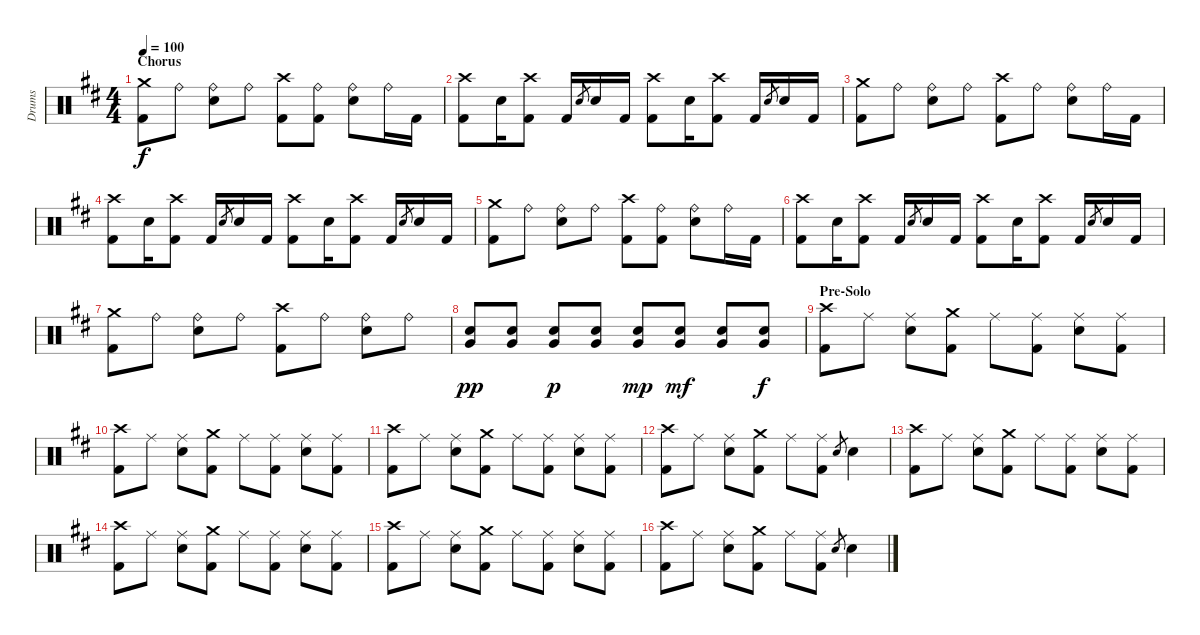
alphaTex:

\track ("Drums" "Drums") {instrument percussion}
\staff {score}
\articulation defaults
\ts (4 4)
\section ("" "Chorus ")
\tempo 100
\clef neutral
\ks bminor
("Crash medium (hit)" "Kick (hit) 2").8{dy f} "Ride (bell)".8 ("Ride (bell)" "Snare (hit) 2").8 "Ride (bell)".8 ("Crash high (hit)" "Kick (hit) 2").8 ("Ride (bell)" "Kick (hit) 2").8 ("Ride (bell)" "Snare (hit) 2").8 "Ride (bell)".16 "Kick (hit) 2".16 |
("Crash high (hit)" "Kick (hit) 2").8 "Snare (hit) 2".16 ("Crash high (hit)" "Kick (hit) 2").8 "Kick (hit) 2".16 "Snare (hit) 2".8{gr} "Snare (hit) 2".16 "Kick (hit) 2".16 ("Crash high (hit)" "Kick (hit) 2").8 "Snare (hit) 2".16 ("Crash high (hit)" "Kick (hit) 2").8 "Kick (hit) 2".16 "Snare (hit) 2".8{gr} "Snare (hit) 2".16 "Kick (hit) 2".16 |
("Crash medium (hit)" "Kick (hit) 2").8 "Ride (bell)".8 ("Ride (bell)" "Snare (hit) 2").8 "Ride (bell)".8 ("Crash high (hit)" "Kick (hit) 2").8 "Ride (bell)".8 ("Ride (bell)" "Snare (hit) 2").8 "Ride (bell)".16 "Kick (hit) 2".16 |
("Crash high (hit)" "Kick (hit) 2").8 "Snare (hit) 2".16 ("Crash high (hit)" "Kick (hit) 2").8 "Kick (hit) 2".16 "Snare (hit) 2".8{gr} "Snare (hit) 2".16 "Kick (hit) 2".16 ("Crash high (hit)" "Kick (hit) 2").8 "Snare (hit) 2".16 ("Crash high (hit)" "Kick (hit) 2").8 "Kick (hit) 2".16 "Snare (hit) 2".8{gr} "Snare (hit) 2".16 "Kick (hit) 2".16 |
("Crash medium (hit)" "Kick (hit) 2").8 "Ride (bell)".8 ("Ride (bell)" "Snare (hit) 2").8 "Ride (bell)".8 ("Crash high (hit)" "Kick (hit) 2").8 ("Ride (bell)" "Kick (hit) 2").8 ("Ride (bell)" "Snare (hit) 2").8 "Ride (bell)".16 "Kick (hit) 2".16 |
("Crash high (hit)" "Kick (hit) 2").8 "Snare (hit) 2".16 ("Crash high (hit)" "Kick (hit) 2").8 "Kick (hit) 2".16 "Snare (hit) 2".8{gr} "Snare (hit) 2".16 "Kick (hit) 2".16 ("Crash high (hit)" "Kick (hit) 2").8 "Snare (hit) 2".16 ("Crash high (hit)" "Kick (hit) 2").8 "Kick (hit) 2".16 "Snare (hit) 2".8{gr} "Snare (hit) 2".16 "Kick (hit) 2".16 |
("Crash medium (hit)" "Kick (hit) 2").8 "Ride (bell)".8 ("Ride (bell)" "Snare (hit) 2").8 "Ride (bell)".8 ("Crash high (hit)" "Kick (hit) 2").8 "Ride (bell)".8 ("Ride (bell)" "Snare (hit) 2").8 "Ride (bell)".8 |
("Very Low Tom (hit)" "Snare (hit) 2").8{dy pp} ("Very Low Tom (hit)" "Snare (hit) 2").8 ("Very Low Tom (hit)" "Snare (hit) 2").8{dy p} ("Very Low Tom (hit)" "Snare (hit) 2").8 ("Very Low Tom (hit)" "Snare (hit) 2").8{dy mp} ("Very Low Tom (hit)" "Snare (hit) 2").8{dy mf} ("Very Low Tom (hit)" "Snare (hit) 2").8 ("Very Low Tom (hit)" "Snare (hit) 2").8{dy f} |
\section ("" "Pre-Solo")
("Crash high (hit)" "Kick (hit) 2").8 "Ride (middle)".8 ("Ride (middle)" "Snare (hit) 2").8 ("Crash medium (hit)" "Kick (hit) 2").8 "Ride (middle)".8 ("Ride (middle)" "Kick (hit) 2").8 ("Ride (middle)" "Snare (hit) 2").8 ("Ride (middle)" "Kick (hit) 2").8 |
("Crash high (hit)" "Kick (hit) 2").8 "Ride (middle)".8 ("Ride (middle)" "Snare (hit) 2").8 ("Crash medium (hit)" "Kick (hit) 2").8 "Ride (middle)".8 ("Ride (middle)" "Kick (hit) 2").8 ("Ride (middle)" "Snare (hit) 2").8 ("Ride (middle)" "Kick (hit) 2").8 |
("Crash high (hit)" "Kick (hit) 2").8 "Ride (middle)".8 ("Ride (middle)" "Snare (hit) 2").8 ("Crash medium (hit)" "Kick (hit) 2").8 "Ride (middle)".8 ("Ride (middle)" "Kick (hit) 2").8 ("Ride (middle)" "Snare (hit) 2").8 ("Ride (middle)" "Kick (hit) 2").8 |
("Crash high (hit)" "Kick (hit) 2").8 "Ride (middle)".8 ("Ride (middle)" "Snare (hit) 2").8 ("Crash medium (hit)" "Kick (hit) 2").8 "Ride (middle)".8 ("Ride (middle)" "Kick (hit) 2").8 "Snare (hit) 2".8{gr} "Snare (hit) 2".4 |
("Crash high (hit)" "Kick (hit) 2").8 "Ride (middle)".8 ("Ride (middle)" "Snare (hit) 2").8 ("Crash medium (hit)" "Kick (hit) 2").8 "Ride (middle)".8 ("Ride (middle)" "Kick (hit) 2").8 ("Ride (middle)" "Snare (hit) 2").8 ("Ride (middle)" "Kick (hit) 2").8 |
("Crash high (hit)" "Kick (hit) 2").8 "Ride (middle)".8 ("Ride (middle)" "Snare (hit) 2").8 ("Crash medium (hit)" "Kick (hit) 2").8 "Ride (middle)".8 ("Ride (middle)" "Kick (hit) 2").8 ("Ride (middle)" "Snare (hit) 2").8 ("Ride (middle)" "Kick (hit) 2").8 |
("Crash high (hit)" "Kick (hit) 2").8 "Ride (middle)".8 ("Ride (middle)" "Snare (hit) 2").8 ("Crash medium (hit)" "Kick (hit) 2").8 "Ride (middle)".8 ("Ride (middle)" "Kick (hit) 2").8 ("Ride (middle)" "Snare (hit) 2").8 ("Ride (middle)" "Kick (hit) 2").8 |
("Crash high (hit)" "Kick (hit) 2").8 "Ride (middle)".8 ("Ride (middle)" "Snare (hit) 2").8 ("Crash medium (hit)" "Kick (hit) 2").8 "Ride (middle)".8 ("Ride (middle)" "Kick (hit) 2").8 "Snare (hit) 2".8{gr} "Snare (hit) 2".4
